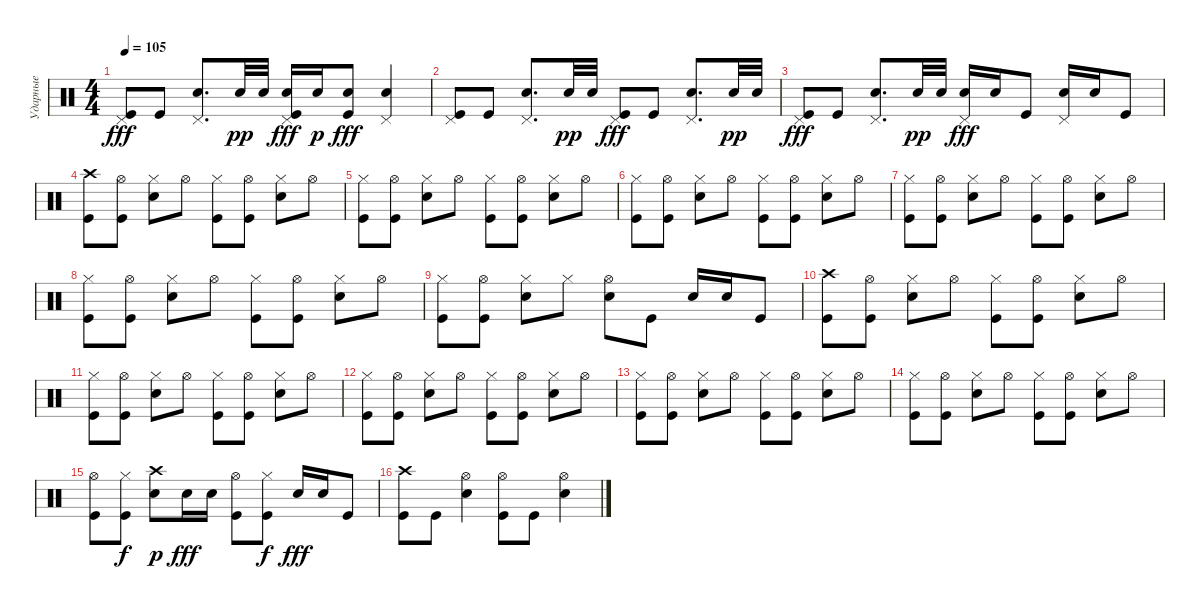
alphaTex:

\track ("Ударные" "Ударные") {instrument percussion}
\staff {score}
\articulation defaults
\ts (4 4)
\tempo 105
\clef neutral
\ks c
("Kick (hit)" "Pedal Hi-Hat (hit)").8{dy fff} "Kick (hit)".8 ("Snare (hit) 2" "Pedal Hi-Hat (hit)").8{d} "Snare (hit) 2".32{dy pp} "Snare (hit) 2".32 ("Snare (hit) 2" "Kick (hit)" "Pedal Hi-Hat (hit)").16{dy fff} "Snare (hit) 2".16{dy p} ("Snare (hit) 2" "Kick (hit)").8{dy fff} ("Snare (hit) 2" "Pedal Hi-Hat (hit)").4 |
("Kick (hit)" "Pedal Hi-Hat (hit)").8 "Kick (hit)".8 ("Snare (hit) 2" "Pedal Hi-Hat (hit)").8{d} "Snare (hit) 2".32{dy pp} "Snare (hit) 2".32 ("Kick (hit)" "Pedal Hi-Hat (hit)").8{dy fff} "Kick (hit)".8 ("Snare (hit) 2" "Pedal Hi-Hat (hit)").8{d} "Snare (hit) 2".32{dy pp} "Snare (hit) 2".32 |
("Kick (hit)" "Pedal Hi-Hat (hit)").8{dy fff} "Kick (hit)".8 ("Snare (hit) 2" "Pedal Hi-Hat (hit)").8{d} "Snare (hit) 2".32{dy pp} "Snare (hit) 2".32 ("Snare (hit) 2" "Pedal Hi-Hat (hit)").16{dy fff} "Snare (hit) 2".16 "Kick (hit)".8 ("Snare (hit) 2" "Pedal Hi-Hat (hit)").16 "Snare (hit) 2".16 "Kick (hit)".8 |
("Kick (hit)" "Crash high (hit)").8 ("Hi-Hat (open)" "Kick (hit)").8 ("Hi-Hat (closed)" "Snare (hit) 2").8 "Hi-Hat (open)".8 ("Kick (hit)" "Hi-Hat (closed)").8 ("Hi-Hat (open)" "Kick (hit)").8 ("Snare (hit) 2" "Hi-Hat (closed)").8 "Hi-Hat (open)".8 |
("Kick (hit)" "Hi-Hat (closed)").8 ("Hi-Hat (open)" "Kick (hit)").8 ("Snare (hit) 2" "Hi-Hat (closed)").8 "Hi-Hat (open)".8 ("Kick (hit)" "Hi-Hat (closed)").8 ("Hi-Hat (open)" "Kick (hit)").8 ("Snare (hit) 2" "Hi-Hat (closed)").8 "Hi-Hat (open)".8 |
("Kick (hit)" "Hi-Hat (closed)").8 ("Hi-Hat (open)" "Kick (hit)").8 ("Snare (hit) 2" "Hi-Hat (closed)").8 "Hi-Hat (open)".8 ("Kick (hit)" "Hi-Hat (closed)").8 ("Hi-Hat (open)" "Kick (hit)").8 ("Snare (hit) 2" "Hi-Hat (closed)").8 "Hi-Hat (open)".8 |
("Kick (hit)" "Hi-Hat (closed)").8 ("Hi-Hat (open)" "Kick (hit)").8 ("Snare (hit) 2" "Hi-Hat (closed)").8 "Hi-Hat (open)".8 ("Kick (hit)" "Hi-Hat (closed)").8 ("Hi-Hat (open)" "Kick (hit)").8 ("Snare (hit) 2" "Hi-Hat (closed)").8 "Hi-Hat (open)".8 |
("Kick (hit)" "Hi-Hat (closed)").8 ("Hi-Hat (open)" "Kick (hit)").8 ("Snare (hit) 2" "Hi-Hat (closed)").8 "Hi-Hat (open)".8 ("Kick (hit)" "Hi-Hat (closed)").8 ("Hi-Hat (open)" "Kick (hit)").8 ("Snare (hit) 2" "Hi-Hat (closed)").8 "Hi-Hat (open)".8 |
("Kick (hit)" "Hi-Hat (closed)").8 ("Hi-Hat (open)" "Kick (hit)").8 ("Snare (hit) 2" "Hi-Hat (closed)").8 "Hi-Hat (closed)".8 ("Hi-Hat (open)" "Snare (hit) 2").8 "Kick (hit)".8 "Snare (hit) 2".16 "Snare (hit) 2".16 "Kick (hit)".8 |
("Kick (hit)" "Crash high (hit)").8 ("Hi-Hat (open)" "Kick (hit)").8 ("Hi-Hat (closed)" "Snare (hit) 2").8 "Hi-Hat (open)".8 ("Kick (hit)" "Hi-Hat (closed)").8 ("Hi-Hat (open)" "Kick (hit)").8 ("Snare (hit) 2" "Hi-Hat (closed)").8 "Hi-Hat (open)".8 |
("Kick (hit)" "Hi-Hat (closed)").8 ("Hi-Hat (open)" "Kick (hit)").8 ("Snare (hit) 2" "Hi-Hat (closed)").8 "Hi-Hat (open)".8 ("Kick (hit)" "Hi-Hat (closed)").8 ("Hi-Hat (open)" "Kick (hit)").8 ("Snare (hit) 2" "Hi-Hat (closed)").8 "Hi-Hat (open)".8 |
("Kick (hit)" "Hi-Hat (closed)").8 ("Hi-Hat (open)" "Kick (hit)").8 ("Snare (hit) 2" "Hi-Hat (closed)").8 "Hi-Hat (open)".8 ("Kick (hit)" "Hi-Hat (closed)").8 ("Hi-Hat (open)" "Kick (hit)").8 ("Snare (hit) 2" "Hi-Hat (closed)").8 "Hi-Hat (open)".8 |
("Kick (hit)" "Hi-Hat (closed)").8 ("Hi-Hat (open)" "Kick (hit)").8 ("Snare (hit) 2" "Hi-Hat (closed)").8 "Hi-Hat (open)".8 ("Kick (hit)" "Hi-Hat (closed)").8 ("Hi-Hat (open)" "Kick (hit)").8 ("Snare (hit) 2" "Hi-Hat (closed)").8 "Hi-Hat (open)".8 |
("Kick (hit)" "Hi-Hat (closed)").8 ("Hi-Hat (open)" "Kick (hit)").8 ("Snare (hit) 2" "Hi-Hat (closed)").8 "Hi-Hat (open)".8 ("Kick (hit)" "Hi-Hat (closed)").8 ("Hi-Hat (open)" "Kick (hit)").8 ("Snare (hit) 2" "Hi-Hat (closed)").8 "Hi-Hat (open)".8 |
("Hi-Hat (open)" "Kick (hit)").8 ("Kick (hit)" "Hi-Hat (closed)").8{dy f} ("Snare (hit) 2" "Crash high (hit)").8{dy p} "Snare (hit) 2".16{dy fff} "Snare (hit) 2".16 ("Hi-Hat (open)" "Kick (hit)").8 ("Kick (hit)" "Hi-Hat (closed)").8{dy f} "Snare (hit) 2".16{dy fff} "Snare (hit) 2".16 "Kick (hit)".8 |
("Kick (hit)" "Crash high (hit)").8 "Kick (hit)".8 ("Hi-Hat (open)" "Snare (hit) 2").4 ("Kick (hit)" "Hi-Hat (open)").8 "Kick (hit)".8 ("Hi-Hat (open)" "Snare (hit) 2").4
